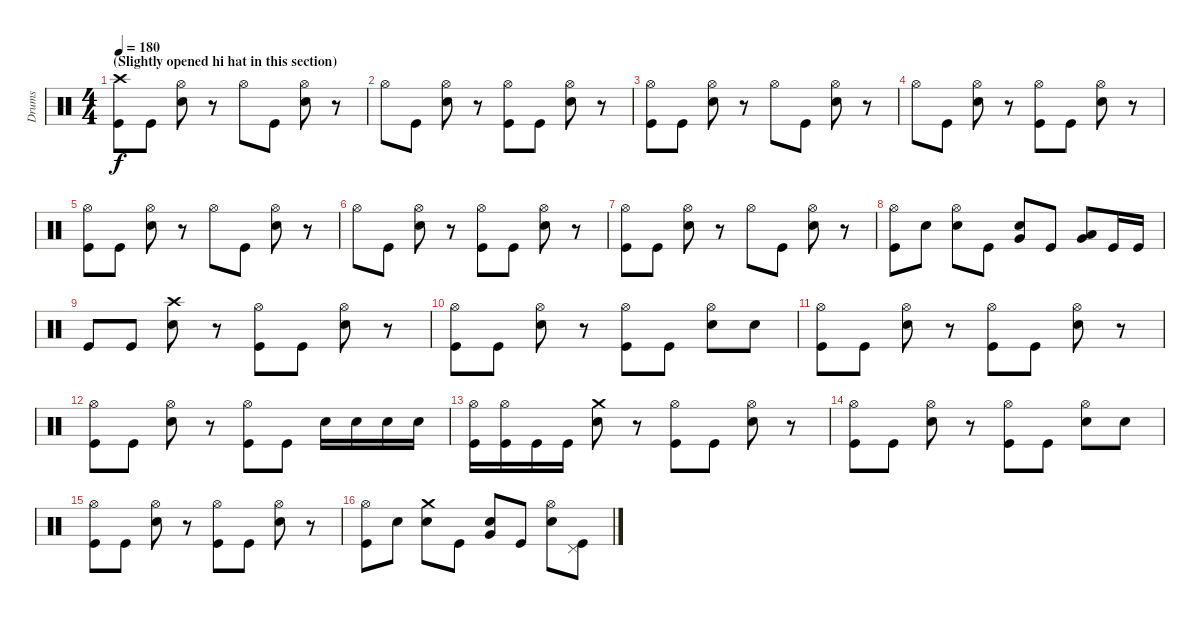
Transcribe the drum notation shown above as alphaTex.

\track ("Drums" "Drums") {instrument percussion}
\staff {score}
\articulation defaults
\ts (4 4)
\section ("" "(Slightly opened hi hat in this section)")
\tempo 180
\clef neutral
\ks c
("Crash high (hit)" "Kick (hit)").8{dy f} "Kick (hit)".8 ("Hi-Hat (open)" "Snare (hit) 2").8 r.8 "Hi-Hat (open)".8 "Kick (hit)".8 ("Hi-Hat (open)" "Snare (hit) 2").8 r.8 |
"Hi-Hat (open)".8 "Kick (hit)".8 ("Hi-Hat (open)" "Snare (hit) 2").8 r.8 ("Hi-Hat (open)" "Kick (hit)").8 "Kick (hit)".8 ("Hi-Hat (open)" "Snare (hit) 2").8 r.8 |
("Hi-Hat (open)" "Kick (hit)").8 "Kick (hit)".8 ("Hi-Hat (open)" "Snare (hit) 2").8 r.8 "Hi-Hat (open)".8 "Kick (hit)".8 ("Hi-Hat (open)" "Snare (hit) 2").8 r.8 |
"Hi-Hat (open)".8 "Kick (hit)".8 ("Hi-Hat (open)" "Snare (hit) 2").8 r.8 ("Hi-Hat (open)" "Kick (hit)").8 "Kick (hit)".8 ("Hi-Hat (open)" "Snare (hit) 2").8 r.8 |
("Hi-Hat (open)" "Kick (hit)").8 "Kick (hit)".8 ("Hi-Hat (open)" "Snare (hit) 2").8 r.8 "Hi-Hat (open)".8 "Kick (hit)".8 ("Hi-Hat (open)" "Snare (hit) 2").8 r.8 |
"Hi-Hat (open)".8 "Kick (hit)".8 ("Hi-Hat (open)" "Snare (hit) 2").8 r.8 ("Hi-Hat (open)" "Kick (hit)").8 "Kick (hit)".8 ("Hi-Hat (open)" "Snare (hit) 2").8 r.8 |
("Hi-Hat (open)" "Kick (hit)").8 "Kick (hit)".8 ("Hi-Hat (open)" "Snare (hit) 2").8 r.8 "Hi-Hat (open)".8 "Kick (hit)".8 ("Hi-Hat (open)" "Snare (hit) 2").8 r.8 |
("Hi-Hat (open)" "Kick (hit)").8 "Snare (hit) 2".8 ("Hi-Hat (open)" "Snare (hit) 2").8 "Kick (hit)".8 ("Very Low Tom (hit)" "Snare (hit) 2").8 "Kick (hit)".8 ("Very Low Tom (hit)" "Low Tom (hit)").8 "Kick (hit)".16 "Kick (hit)".16 |
"Kick (hit)".8 "Kick (hit)".8 ("Snare (hit) 2" "Crash high (hit)").8 r.8 ("Hi-Hat (open)" "Kick (hit)").8 "Kick (hit)".8 ("Hi-Hat (open)" "Snare (hit) 2").8 r.8 |
("Hi-Hat (open)" "Kick (hit)").8 "Kick (hit)".8 ("Hi-Hat (open)" "Snare (hit) 2").8 r.8 ("Hi-Hat (open)" "Kick (hit)").8 "Kick (hit)".8 ("Hi-Hat (open)" "Snare (hit) 2").8 "Snare (hit) 2".8 |
("Hi-Hat (open)" "Kick (hit)").8 "Kick (hit)".8 ("Hi-Hat (open)" "Snare (hit) 2").8 r.8 ("Hi-Hat (open)" "Kick (hit)").8 "Kick (hit)".8 ("Hi-Hat (open)" "Snare (hit) 2").8 r.8 |
("Hi-Hat (open)" "Kick (hit)").8 "Kick (hit)".8 ("Hi-Hat (open)" "Snare (hit) 2").8 r.8 ("Hi-Hat (open)" "Kick (hit)").8 "Kick (hit)".8 "Snare (hit) 2".16 "Snare (hit) 2".16 "Snare (hit) 2".16 "Snare (hit) 2".16 |
("Kick (hit)" "Hi-Hat (open)").16 ("Kick (hit)" "Hi-Hat (open)").16 "Kick (hit)".16 "Kick (hit)".16 ("Crash medium (hit)" "Snare (hit) 2").8 r.8 ("Hi-Hat (open)" "Kick (hit)").8 "Kick (hit)".8 ("Hi-Hat (open)" "Snare (hit) 2").8 r.8 |
("Hi-Hat (open)" "Kick (hit)").8 "Kick (hit)".8 ("Hi-Hat (open)" "Snare (hit) 2").8 r.8 ("Hi-Hat (open)" "Kick (hit)").8 "Kick (hit)".8 ("Hi-Hat (open)" "Snare (hit) 2").8 "Snare (hit) 2".8 |
("Hi-Hat (open)" "Kick (hit)").8 "Kick (hit)".8 ("Hi-Hat (open)" "Snare (hit) 2").8 r.8 ("Hi-Hat (open)" "Kick (hit)").8 "Kick (hit)".8 ("Hi-Hat (open)" "Snare (hit) 2").8 r.8 |
("Hi-Hat (open)" "Kick (hit)").8 "Snare (hit) 2".8 ("Crash medium (hit)" "Snare (hit) 2").8 "Kick (hit)".8 ("Very Low Tom (hit)" "Snare (hit) 2").8 "Kick (hit)".8 ("Hi-Hat (open)" "Snare (hit) 2").8 ("Kick (hit)" "Pedal Hi-Hat (hit)").8
